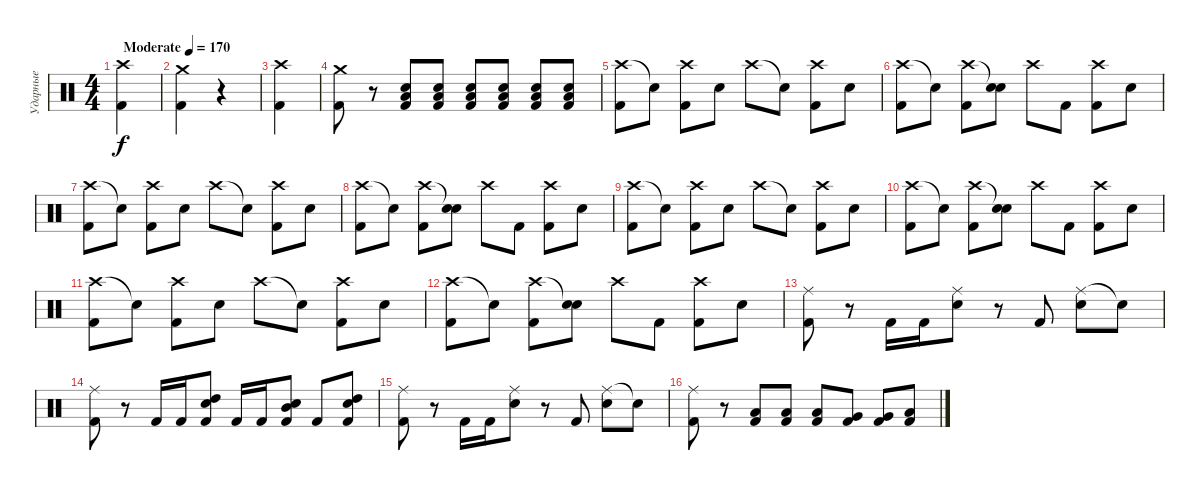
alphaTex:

\track ("Ударные" "Ударные") {instrument percussion}
\staff {score}
\articulation defaults
\ts (4 4)
\tempo (170 "Moderate")
\clef neutral
\ks c
("Kick (hit) 2" "Crash high (hit)").4{dy f} |
("Kick (hit) 2" "Crash medium (hit)").4 r.4 |
("Kick (hit) 2" "Crash high (hit)").4 |
("Kick (hit) 2" "Crash medium (hit)").8 r.8 ("Kick (hit) 2" "Low Floor Tom (hit)" "Snare (hit) 2").8 ("Kick (hit) 2" "Low Floor Tom (hit)" "Snare (hit) 2").8 ("Kick (hit) 2" "Low Floor Tom (hit)" "Snare (hit) 2").8 ("Kick (hit) 2" "Low Floor Tom (hit)" "Snare (hit) 2").8 ("Kick (hit) 2" "Low Floor Tom (hit)" "Snare (hit) 2").8 ("Kick (hit) 2" "Low Floor Tom (hit)" "Snare (hit) 2").8 |
("Crash high (hit)" "Kick (hit) 2").8 "Snare (hit)"{t}.8 ("Crash high (hit)" "Kick (hit) 2").8 "Snare (hit) 2".8 "Crash high (hit)".8 "Snare (hit)"{t}.8 ("Crash high (hit)" "Kick (hit) 2").8 "Snare (hit) 2".8 |
("Crash high (hit)" "Kick (hit) 2").8 "Snare (hit)"{t}.8 ("Crash high (hit)" "Kick (hit) 2").8 ("Snare (hit)"{t} "Snare (hit) 2").8 "Crash high (hit)".8 "Kick (hit) 2".8 ("Crash high (hit)" "Kick (hit) 2").8 "Snare (hit) 2".8 |
("Crash high (hit)" "Kick (hit) 2").8 "Snare (hit)"{t}.8 ("Crash high (hit)" "Kick (hit) 2").8 "Snare (hit) 2".8 "Crash high (hit)".8 "Snare (hit)"{t}.8 ("Crash high (hit)" "Kick (hit) 2").8 "Snare (hit) 2".8 |
("Crash high (hit)" "Kick (hit) 2").8 "Snare (hit)"{t}.8 ("Crash high (hit)" "Kick (hit) 2").8 ("Snare (hit)"{t} "Snare (hit) 2").8 "Crash high (hit)".8 "Kick (hit) 2".8 ("Crash high (hit)" "Kick (hit) 2").8 "Snare (hit) 2".8 |
("Crash high (hit)" "Kick (hit) 2").8 "Snare (hit)"{t}.8 ("Crash high (hit)" "Kick (hit) 2").8 "Snare (hit) 2".8 "Crash high (hit)".8 "Snare (hit)"{t}.8 ("Crash high (hit)" "Kick (hit) 2").8 "Snare (hit) 2".8 |
("Crash high (hit)" "Kick (hit) 2").8 "Snare (hit)"{t}.8 ("Crash high (hit)" "Kick (hit) 2").8 ("Snare (hit)"{t} "Snare (hit) 2").8 "Crash high (hit)".8 "Kick (hit) 2".8 ("Crash high (hit)" "Kick (hit) 2").8 "Snare (hit) 2".8 |
("Crash high (hit)" "Kick (hit) 2").8 "Snare (hit)"{t}.8 ("Crash high (hit)" "Kick (hit) 2").8 "Snare (hit) 2".8 "Crash high (hit)".8 "Snare (hit)"{t}.8 ("Crash high (hit)" "Kick (hit) 2").8 "Snare (hit) 2".8 |
("Crash high (hit)" "Kick (hit) 2").8 "Snare (hit)"{t}.8 ("Crash high (hit)" "Kick (hit) 2").8 ("Snare (hit)"{t} "Snare (hit) 2").8 "Crash high (hit)".8 "Kick (hit) 2".8 ("Crash high (hit)" "Kick (hit) 2").8 "Snare (hit) 2".8 |
("Ride (middle)" "Kick (hit) 2").8 r.8 "Kick (hit) 2".16 "Kick (hit) 2".16 ("Ride (middle)" "Snare (hit) 2").8 r.8 "Kick (hit) 2".8 ("Ride (middle)" "Snare (hit) 2").8 "Snare (hit)"{t}.8 |
("Ride (middle)" "Kick (hit) 2").8 r.8 "Kick (hit) 2".16 "Kick (hit) 2".16 ("Snare (hit) 2" "Kick (hit) 2" "High Tom (hit)").8 "Kick (hit) 2".16 "Kick (hit) 2".16 ("Snare (hit) 2" "Kick (hit) 2" "Mid Tom (hit)").8 "Kick (hit) 2".8 ("Snare (hit) 2" "Kick (hit) 2" "High Tom (hit)").8 |
("Ride (middle)" "Kick (hit) 2").8 r.8 "Kick (hit) 2".16 "Kick (hit) 2".16 ("Ride (middle)" "Snare (hit) 2").8 r.8 "Kick (hit) 2".8 ("Ride (middle)" "Snare (hit) 2").8 "Snare (hit)"{t}.8 |
("Ride (middle)" "Kick (hit) 2").8 r.8 ("Kick (hit) 2" "Low Floor Tom (hit)").8 ("Kick (hit) 2" "Low Floor Tom (hit)").8 ("Kick (hit) 2" "Low Floor Tom (hit)").8 ("Kick (hit) 2" "Very Low Tom (hit)").8 ("Kick (hit) 2" "Very Low Tom (hit)").8 ("Kick (hit) 2" "Low Tom (hit)").8
